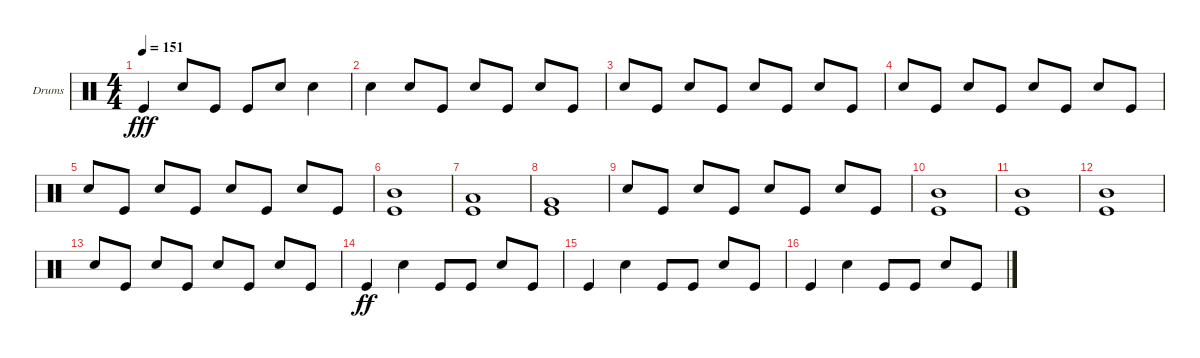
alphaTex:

\defaultSystemsLayout 4
\bracketExtendMode groupsimilarinstruments
\firstSystemTrackNameOrientation horizontal
\otherSystemsTrackNameOrientation horizontal
\track ("Helders" "Drums") {instrument percussion}
\staff {score}
\articulation defaults
\ts (4 4)
\tempo 151
\clef neutral
\ks c "Kick (hit)".4{dy fff} "Snare (hit) 2".8 "Kick (hit)".8 "Kick (hit)".8 "Snare (hit) 2".8 "Snare (hit) 2".4
|
"Snare (hit) 2".4 "Snare (hit) 2".8 "Kick (hit)".8 "Snare (hit) 2".8 "Kick (hit)".8 "Snare (hit) 2".8 "Kick (hit)".8 |
"Snare (hit) 2".8 "Kick (hit)".8 "Snare (hit) 2".8 "Kick (hit)".8 "Snare (hit) 2".8 "Kick (hit)".8 "Snare (hit) 2".8 "Kick (hit)".8 |
"Snare (hit) 2".8 "Kick (hit)".8 "Snare (hit) 2".8 "Kick (hit)".8 "Snare (hit) 2".8 "Kick (hit)".8 "Snare (hit) 2".8 "Kick (hit)".8 |
"Snare (hit) 2".8 "Kick (hit)".8 "Snare (hit) 2".8 "Kick (hit)".8 "Snare (hit) 2".8 "Kick (hit)".8 "Snare (hit) 2".8 "Kick (hit)".8 |
("Kick (hit)" "Mid Tom (hit)").1 |
("Kick (hit)" "Low Tom (hit)").1 |
("Kick (hit)" "Very Low Tom (hit)").1 |
"Snare (hit) 2".8 "Kick (hit)".8 "Snare (hit) 2".8 "Kick (hit)".8 "Snare (hit) 2".8 "Kick (hit)".8 "Snare (hit) 2".8 "Kick (hit)".8 |
("Kick (hit)" "Mid Tom (hit)").1 |
("Kick (hit)" "Mid Tom (hit)").1 |
("Kick (hit)" "Mid Tom (hit)").1 |
"Snare (hit) 2".8 "Kick (hit)".8 "Snare (hit) 2".8 "Kick (hit)".8 "Snare (hit) 2".8 "Kick (hit)".8 "Snare (hit) 2".8 "Kick (hit)".8 |
"Kick (hit)".4{dy ff} "Snare (hit) 2".4 "Kick (hit)".8 "Kick (hit)".8 "Snare (hit) 2".8 "Kick (hit)".8 |
"Kick (hit)".4 "Snare (hit) 2".4 "Kick (hit)".8 "Kick (hit)".8 "Snare (hit) 2".8 "Kick (hit)".8 |
"Kick (hit)".4 "Snare (hit) 2".4 "Kick (hit)".8 "Kick (hit)".8 "Snare (hit) 2".8 "Kick (hit)".8
